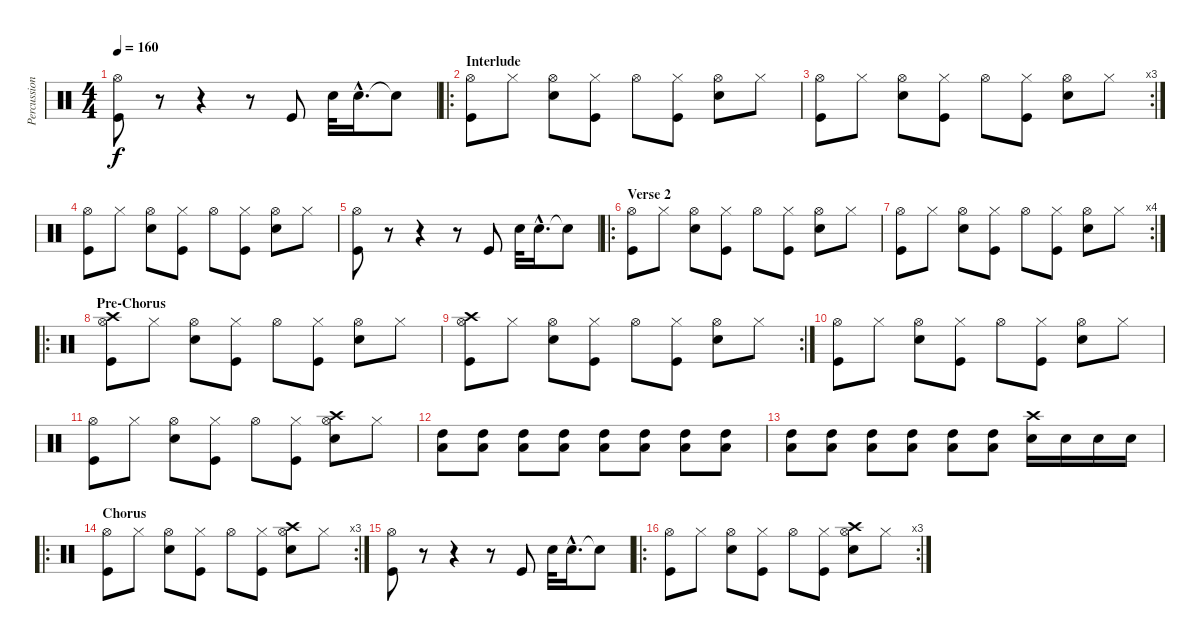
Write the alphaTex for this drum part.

\track ("Percussions" "Percussion") {instrument percussion}
\staff {score}
\articulation defaults
\ts (4 4)
\tempo 160
\clef neutral
\ks c
("Hi-Hat (open)" "Kick (hit)").8{dy f} r.8 r.4 r.8 "Kick (hit)".8 "Snare (hit) 2".32 "Snare (hit) 2"{hac}.16{d} "Snare (hit)"{t}.8 |
\ro
\section ("" "Interlude")
("Hi-Hat (open)" "Kick (hit)").8 "Hi-Hat (closed)".8 ("Hi-Hat (open)" "Snare (hit) 2").8 ("Hi-Hat (closed)" "Kick (hit)").8 "Hi-Hat (open)".8 ("Hi-Hat (closed)" "Kick (hit)").8 ("Hi-Hat (open)" "Snare (hit) 2").8 "Hi-Hat (closed)".8 |
\rc 3
("Hi-Hat (open)" "Kick (hit)").8 "Hi-Hat (closed)".8 ("Hi-Hat (open)" "Snare (hit) 2").8 ("Hi-Hat (closed)" "Kick (hit)").8 "Hi-Hat (open)".8 ("Hi-Hat (closed)" "Kick (hit)").8 ("Hi-Hat (open)" "Snare (hit) 2").8 "Hi-Hat (closed)".8 |
("Hi-Hat (open)" "Kick (hit)").8 "Hi-Hat (closed)".8 ("Hi-Hat (open)" "Snare (hit) 2").8 ("Hi-Hat (closed)" "Kick (hit)").8 "Hi-Hat (open)".8 ("Hi-Hat (closed)" "Kick (hit)").8 ("Hi-Hat (open)" "Snare (hit) 2").8 "Hi-Hat (closed)".8 |
("Hi-Hat (open)" "Kick (hit)").8 r.8 r.4 r.8 "Kick (hit)".8 "Snare (hit) 2".32 "Snare (hit) 2"{hac}.16{d} "Snare (hit)"{t}.8 |
\ro
\section ("" "Verse 2")
("Hi-Hat (open)" "Kick (hit)").8 "Hi-Hat (closed)".8 ("Hi-Hat (open)" "Snare (hit) 2").8 ("Hi-Hat (closed)" "Kick (hit)").8 "Hi-Hat (open)".8 ("Hi-Hat (closed)" "Kick (hit)").8 ("Hi-Hat (open)" "Snare (hit) 2").8 "Hi-Hat (closed)".8 |
\rc 4
("Hi-Hat (open)" "Kick (hit)").8 "Hi-Hat (closed)".8 ("Hi-Hat (open)" "Snare (hit) 2").8 ("Hi-Hat (closed)" "Kick (hit)").8 "Hi-Hat (open)".8 ("Hi-Hat (closed)" "Kick (hit)").8 ("Hi-Hat (open)" "Snare (hit) 2").8 "Hi-Hat (closed)".8 |
\ro
\section ("" "Pre-Chorus")
("Hi-Hat (open)" "Kick (hit)" "Crash high (hit)").8 "Hi-Hat (closed)".8 ("Hi-Hat (open)" "Snare (hit) 2").8 ("Hi-Hat (closed)" "Kick (hit)").8 "Hi-Hat (open)".8 ("Hi-Hat (closed)" "Kick (hit)").8 ("Hi-Hat (open)" "Snare (hit) 2").8 "Hi-Hat (closed)".8 |
\rc 2
("Hi-Hat (open)" "Kick (hit)" "Crash high (hit)").8 "Hi-Hat (closed)".8 ("Hi-Hat (open)" "Snare (hit) 2").8 ("Hi-Hat (closed)" "Kick (hit)").8 "Hi-Hat (open)".8 ("Hi-Hat (closed)" "Kick (hit)").8 ("Hi-Hat (open)" "Snare (hit) 2").8 "Hi-Hat (closed)".8 |
("Hi-Hat (open)" "Kick (hit)").8 "Hi-Hat (closed)".8 ("Hi-Hat (open)" "Snare (hit) 2").8 ("Hi-Hat (closed)" "Kick (hit)").8 "Hi-Hat (open)".8 ("Hi-Hat (closed)" "Kick (hit)").8 ("Hi-Hat (open)" "Snare (hit) 2").8 "Hi-Hat (closed)".8 |
("Hi-Hat (open)" "Kick (hit)").8 "Hi-Hat (closed)".8 ("Hi-Hat (open)" "Snare (hit) 2").8 ("Hi-Hat (closed)" "Kick (hit)").8 "Hi-Hat (open)".8 ("Hi-Hat (closed)" "Kick (hit)").8 ("Hi-Hat (open)" "Snare (hit) 2" "Crash high (hit)").8 "Hi-Hat (closed)".8 |
("Low Floor Tom (hit)" "High Tom (hit)").8 ("Low Floor Tom (hit)" "High Tom (hit)").8 ("Low Floor Tom (hit)" "High Tom (hit)").8 ("Low Floor Tom (hit)" "High Tom (hit)").8 ("Low Floor Tom (hit)" "High Tom (hit)").8 ("Low Floor Tom (hit)" "High Tom (hit)").8 ("Low Floor Tom (hit)" "High Tom (hit)").8 ("Low Floor Tom (hit)" "High Tom (hit)").8 |
("Low Floor Tom (hit)" "High Tom (hit)").8 ("Low Floor Tom (hit)" "High Tom (hit)").8 ("Low Floor Tom (hit)" "High Tom (hit)").8 ("Low Floor Tom (hit)" "High Tom (hit)").8 ("Low Floor Tom (hit)" "High Tom (hit)").8 ("Low Floor Tom (hit)" "High Tom (hit)").8 ("Snare (hit) 2" "Crash high (hit)").16 "Snare (hit) 2".16 "Snare (hit) 2".16 "Snare (hit) 2".16 |
\ro
\rc 3
\section ("" "Chorus")
("Hi-Hat (open)" "Kick (hit)").8 "Hi-Hat (closed)".8 ("Hi-Hat (open)" "Snare (hit) 2").8 ("Hi-Hat (closed)" "Kick (hit)").8 "Hi-Hat (open)".8 ("Hi-Hat (closed)" "Kick (hit)").8 ("Hi-Hat (open)" "Snare (hit) 2" "Crash high (hit)").8 "Hi-Hat (closed)".8 |
("Hi-Hat (open)" "Kick (hit)").8 r.8 r.4 r.8 "Kick (hit)".8 "Snare (hit) 2".32 "Snare (hit) 2"{hac}.16{d} "Snare (hit)"{t}.8 |
\ro
\rc 3
("Hi-Hat (open)" "Kick (hit)").8 "Hi-Hat (closed)".8 ("Hi-Hat (open)" "Snare (hit) 2").8 ("Hi-Hat (closed)" "Kick (hit)").8 "Hi-Hat (open)".8 ("Hi-Hat (closed)" "Kick (hit)").8 ("Hi-Hat (open)" "Snare (hit) 2" "Crash high (hit)").8 "Hi-Hat (closed)".8
